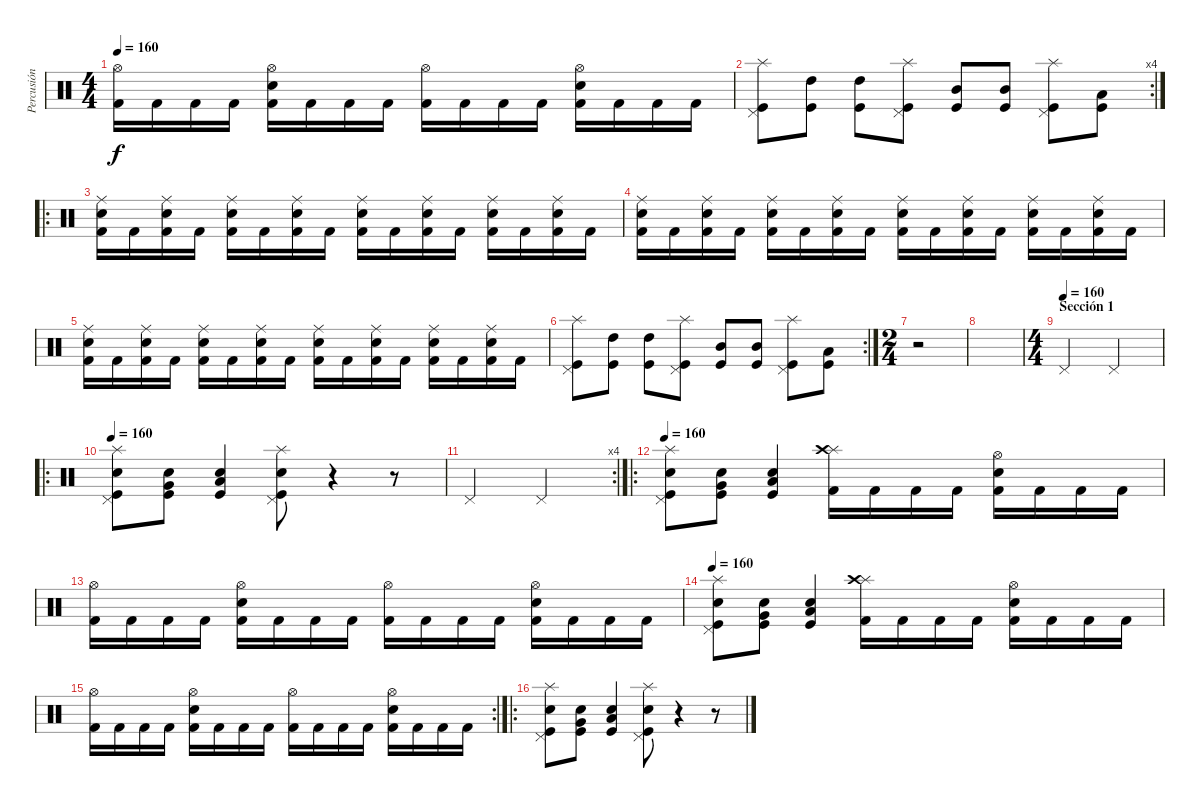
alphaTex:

\track ("Percusión" "Percusión") {instrument percussion}
\staff {score}
\articulation defaults
\ts (4 4)
\tempo 160
\clef neutral
\ks c
("Hi-Hat (open)" "Kick (hit) 2").16{dy f} "Kick (hit) 2".16 "Kick (hit) 2".16 "Kick (hit) 2".16 ("Hi-Hat (open)" "Electric Snare (hit)" "Kick (hit) 2").16 "Kick (hit) 2".16 "Kick (hit) 2".16 "Kick (hit) 2".16 ("Hi-Hat (open)" "Kick (hit) 2").16 "Kick (hit) 2".16 "Kick (hit) 2".16 "Kick (hit) 2".16 ("Hi-Hat (open)" "Electric Snare (hit)" "Kick (hit) 2").16 "Kick (hit) 2".16 "Kick (hit) 2".16 "Kick (hit) 2".16 |
\rc 4
("Splash (hit)" "Pedal Hi-Hat (hit)" "Kick (hit)").8 ("High Tom (hit)" "Kick (hit)").8 ("High Tom (hit)" "Kick (hit)").8 ("Splash (hit)" "Pedal Hi-Hat (hit)" "Kick (hit)").8 ("Mid Tom (hit)" "Kick (hit)").8 ("Mid Tom (hit)" "Kick (hit)").8 ("Splash (hit)" "Pedal Hi-Hat (hit)" "Kick (hit)").8 ("Low Tom (hit)" "Kick (hit)").8 |
\ro
("Kick (hit) 2" "Snare (hit) 2" "Ride (middle)").16 "Kick (hit) 2".16 ("Kick (hit) 2" "Snare (hit) 2" "Ride (middle)").16 "Kick (hit) 2".16 ("Kick (hit) 2" "Snare (hit) 2" "Ride (middle)").16 "Kick (hit) 2".16 ("Kick (hit) 2" "Snare (hit) 2" "Ride (middle)").16 "Kick (hit) 2".16 ("Kick (hit) 2" "Snare (hit) 2" "Ride (middle)").16 "Kick (hit) 2".16 ("Kick (hit) 2" "Snare (hit) 2" "Ride (middle)").16 "Kick (hit) 2".16 ("Kick (hit) 2" "Snare (hit) 2" "Ride (middle)").16 "Kick (hit) 2".16 ("Kick (hit) 2" "Snare (hit) 2" "Ride (middle)").16 "Kick (hit) 2".16 |
("Kick (hit) 2" "Snare (hit) 2" "Ride (middle)").16 "Kick (hit) 2".16 ("Kick (hit) 2" "Snare (hit) 2" "Ride (middle)").16 "Kick (hit) 2".16 ("Kick (hit) 2" "Snare (hit) 2" "Ride (middle)").16 "Kick (hit) 2".16 ("Kick (hit) 2" "Snare (hit) 2" "Ride (middle)").16 "Kick (hit) 2".16 ("Kick (hit) 2" "Snare (hit) 2" "Ride (middle)").16 "Kick (hit) 2".16 ("Kick (hit) 2" "Snare (hit) 2" "Ride (middle)").16 "Kick (hit) 2".16 ("Kick (hit) 2" "Snare (hit) 2" "Ride (middle)").16 "Kick (hit) 2".16 ("Kick (hit) 2" "Snare (hit) 2" "Ride (middle)").16 "Kick (hit) 2".16 |
("Kick (hit) 2" "Snare (hit) 2" "Ride (middle)").16 "Kick (hit) 2".16 ("Kick (hit) 2" "Snare (hit) 2" "Ride (middle)").16 "Kick (hit) 2".16 ("Kick (hit) 2" "Snare (hit) 2" "Ride (middle)").16 "Kick (hit) 2".16 ("Kick (hit) 2" "Snare (hit) 2" "Ride (middle)").16 "Kick (hit) 2".16 ("Kick (hit) 2" "Snare (hit) 2" "Ride (middle)").16 "Kick (hit) 2".16 ("Kick (hit) 2" "Snare (hit) 2" "Ride (middle)").16 "Kick (hit) 2".16 ("Kick (hit) 2" "Snare (hit) 2" "Ride (middle)").16 "Kick (hit) 2".16 ("Kick (hit) 2" "Snare (hit) 2" "Ride (middle)").16 "Kick (hit) 2".16 |
\rc 2
("Splash (hit)" "Pedal Hi-Hat (hit)" "Kick (hit)").8 ("High Tom (hit)" "Kick (hit)").8 ("High Tom (hit)" "Kick (hit)").8 ("Splash (hit)" "Pedal Hi-Hat (hit)" "Kick (hit)").8 ("Mid Tom (hit)" "Kick (hit)").8 ("Mid Tom (hit)" "Kick (hit)").8 ("Splash (hit)" "Pedal Hi-Hat (hit)" "Kick (hit)").8 ("Low Tom (hit)" "Kick (hit)").8 |
\ts (2 4)
r.2 |
|
\ts (4 4)
\section ("" "Sección 1")
\tempo (160)
"Pedal Hi-Hat (hit)".2 "Pedal Hi-Hat (hit)".2 |
\ro
\tempo 160
("Kick (hit)" "Pedal Hi-Hat (hit)" "Snare (hit) 2" "Splash (hit)").8 ("Kick (hit)" "Snare (hit) 2" "Very Low Tom (hit)").8 ("Kick (hit)" "Snare (hit) 2" "Low Tom (hit)").4 ("Kick (hit)" "Pedal Hi-Hat (hit)" "Snare (hit) 2" "Splash (hit)").8 r.4 r.8 |
\rc 4 "Pedal Hi-Hat (hit)".2 "Pedal Hi-Hat (hit)".2
|
\ro
\tempo 160
("Kick (hit)" "Pedal Hi-Hat (hit)" "Snare (hit) 2" "Splash (hit)").8 ("Kick (hit)" "Snare (hit) 2" "Very Low Tom (hit)").8 ("Kick (hit)" "Snare (hit) 2" "Low Tom (hit)").4 ("Splash (hit)" "Crash high (hit)" "Kick (hit) 2").16 "Kick (hit) 2".16 "Kick (hit) 2".16 "Kick (hit) 2".16 ("Hi-Hat (open)" "Electric Snare (hit)" "Kick (hit) 2").16 "Kick (hit) 2".16 "Kick (hit) 2".16 "Kick (hit) 2".16 |
("Hi-Hat (open)" "Kick (hit) 2").16 "Kick (hit) 2".16 "Kick (hit) 2".16 "Kick (hit) 2".16 ("Hi-Hat (open)" "Electric Snare (hit)" "Kick (hit) 2").16 "Kick (hit) 2".16 "Kick (hit) 2".16 "Kick (hit) 2".16 ("Hi-Hat (open)" "Kick (hit) 2").16 "Kick (hit) 2".16 "Kick (hit) 2".16 "Kick (hit) 2".16 ("Hi-Hat (open)" "Electric Snare (hit)" "Kick (hit) 2").16 "Kick (hit) 2".16 "Kick (hit) 2".16 "Kick (hit) 2".16 |
\tempo 160
("Kick (hit)" "Pedal Hi-Hat (hit)" "Snare (hit) 2" "Splash (hit)").8 ("Kick (hit)" "Snare (hit) 2" "Very Low Tom (hit)").8 ("Kick (hit)" "Snare (hit) 2" "Low Tom (hit)").4 ("Splash (hit)" "Crash high (hit)" "Kick (hit) 2").16 "Kick (hit) 2".16 "Kick (hit) 2".16 "Kick (hit) 2".16 ("Hi-Hat (open)" "Electric Snare (hit)" "Kick (hit) 2").16 "Kick (hit) 2".16 "Kick (hit) 2".16 "Kick (hit) 2".16 |
\rc 2
("Hi-Hat (open)" "Kick (hit) 2").16 "Kick (hit) 2".16 "Kick (hit) 2".16 "Kick (hit) 2".16 ("Hi-Hat (open)" "Electric Snare (hit)" "Kick (hit) 2").16 "Kick (hit) 2".16 "Kick (hit) 2".16 "Kick (hit) 2".16 ("Hi-Hat (open)" "Kick (hit) 2").16 "Kick (hit) 2".16 "Kick (hit) 2".16 "Kick (hit) 2".16 ("Hi-Hat (open)" "Electric Snare (hit)" "Kick (hit) 2").16 "Kick (hit) 2".16 "Kick (hit) 2".16 "Kick (hit) 2".16 |
\ro
("Kick (hit)" "Pedal Hi-Hat (hit)" "Snare (hit) 2" "Splash (hit)").8 ("Kick (hit)" "Snare (hit) 2" "Very Low Tom (hit)").8 ("Kick (hit)" "Snare (hit) 2" "Low Tom (hit)").4 ("Kick (hit)" "Pedal Hi-Hat (hit)" "Snare (hit) 2" "Splash (hit)").8 r.4 r.8
